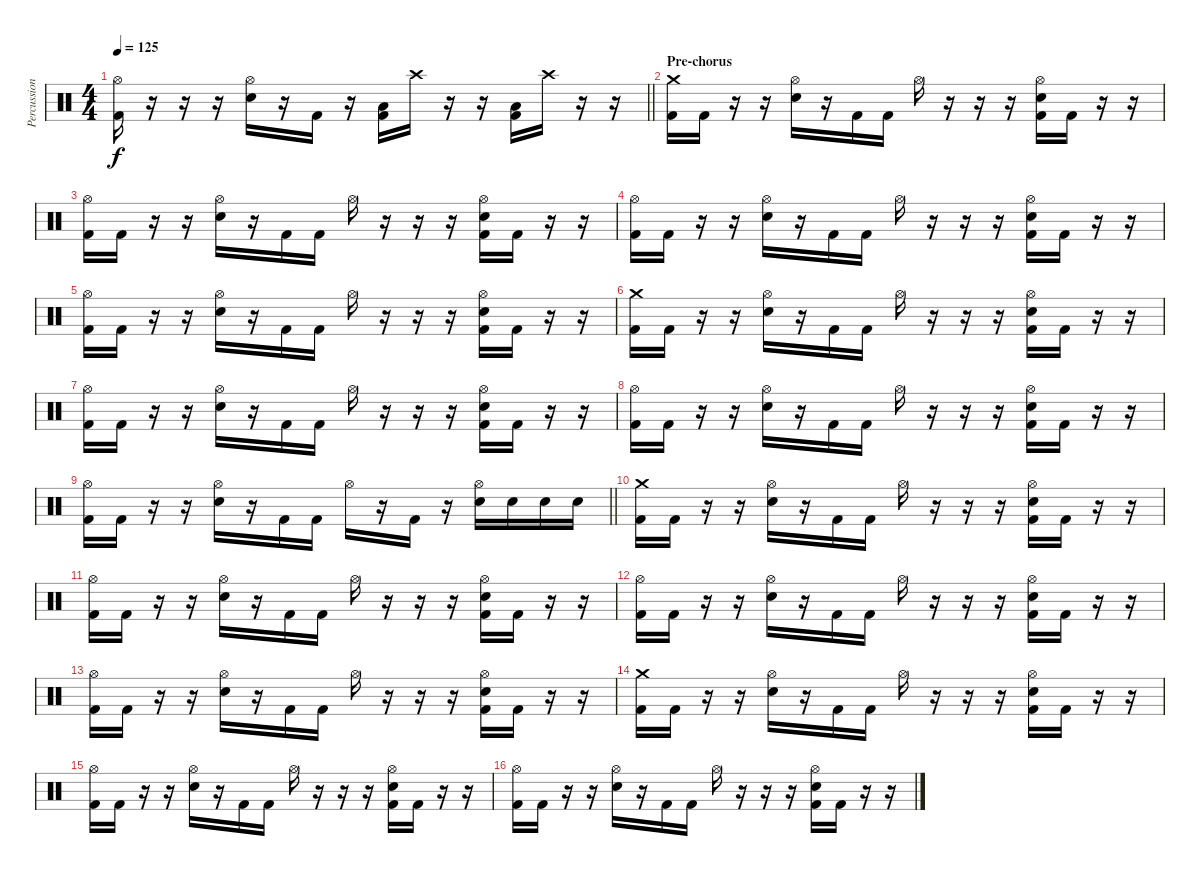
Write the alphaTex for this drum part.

\track ("Percussion" "Percussion") {instrument percussion}
\staff {score}
\articulation defaults
\ts (4 4)
\tempo 125
\clef neutral
\barLineRight lightlight
\ks c
("Hi-Hat (open)" "Kick (hit) 2").16{dy f} r.16 r.16 r.16 ("Hi-Hat (open)" "Electric Snare (hit)").16 r.16 "Kick (hit) 2".16 r.16 ("Low Floor Tom (hit)" "Kick (hit) 2").16 "Crash high (hit)".16 r.16 r.16 ("Low Floor Tom (hit)" "Kick (hit) 2").16 "Crash high (hit)".16 r.16 r.16 |
\section ("" "Pre-chorus")
("Crash medium (hit)" "Kick (hit) 2").16 "Kick (hit) 2".16 r.16 r.16 ("Hi-Hat (open)" "Electric Snare (hit)").16 r.16 "Kick (hit) 2".16 "Kick (hit) 2".16 "Hi-Hat (open)".16 r.16 r.16 r.16 ("Hi-Hat (open)" "Electric Snare (hit)" "Kick (hit) 2").16 "Kick (hit) 2".16 r.16 r.16 |
("Hi-Hat (open)" "Kick (hit) 2").16 "Kick (hit) 2".16 r.16 r.16 ("Hi-Hat (open)" "Electric Snare (hit)").16 r.16 "Kick (hit) 2".16 "Kick (hit) 2".16 "Hi-Hat (open)".16 r.16 r.16 r.16 ("Hi-Hat (open)" "Electric Snare (hit)" "Kick (hit) 2").16 "Kick (hit) 2".16 r.16 r.16 |
("Hi-Hat (open)" "Kick (hit) 2").16 "Kick (hit) 2".16 r.16 r.16 ("Hi-Hat (open)" "Electric Snare (hit)").16 r.16 "Kick (hit) 2".16 "Kick (hit) 2".16 "Hi-Hat (open)".16 r.16 r.16 r.16 ("Hi-Hat (open)" "Electric Snare (hit)" "Kick (hit) 2").16 "Kick (hit) 2".16 r.16 r.16 |
("Hi-Hat (open)" "Kick (hit) 2").16 "Kick (hit) 2".16 r.16 r.16 ("Hi-Hat (open)" "Electric Snare (hit)").16 r.16 "Kick (hit) 2".16 "Kick (hit) 2".16 "Hi-Hat (open)".16 r.16 r.16 r.16 ("Hi-Hat (open)" "Electric Snare (hit)" "Kick (hit) 2").16 "Kick (hit) 2".16 r.16 r.16 |
("Crash medium (hit)" "Kick (hit) 2").16 "Kick (hit) 2".16 r.16 r.16 ("Hi-Hat (open)" "Electric Snare (hit)").16 r.16 "Kick (hit) 2".16 "Kick (hit) 2".16 "Hi-Hat (open)".16 r.16 r.16 r.16 ("Hi-Hat (open)" "Electric Snare (hit)" "Kick (hit) 2").16 "Kick (hit) 2".16 r.16 r.16 |
("Hi-Hat (open)" "Kick (hit) 2").16 "Kick (hit) 2".16 r.16 r.16 ("Hi-Hat (open)" "Electric Snare (hit)").16 r.16 "Kick (hit) 2".16 "Kick (hit) 2".16 "Hi-Hat (open)".16 r.16 r.16 r.16 ("Hi-Hat (open)" "Electric Snare (hit)" "Kick (hit) 2").16 "Kick (hit) 2".16 r.16 r.16 |
("Hi-Hat (open)" "Kick (hit) 2").16 "Kick (hit) 2".16 r.16 r.16 ("Hi-Hat (open)" "Electric Snare (hit)").16 r.16 "Kick (hit) 2".16 "Kick (hit) 2".16 "Hi-Hat (open)".16 r.16 r.16 r.16 ("Hi-Hat (open)" "Electric Snare (hit)" "Kick (hit) 2").16 "Kick (hit) 2".16 r.16 r.16 |
\barLineRight lightlight
("Hi-Hat (open)" "Kick (hit) 2").16 "Kick (hit) 2".16 r.16 r.16 ("Hi-Hat (open)" "Electric Snare (hit)").16 r.16 "Kick (hit) 2".16 "Kick (hit) 2".16 "Hi-Hat (open)".16 r.16 "Kick (hit) 2".16 r.16 ("Hi-Hat (open)" "Electric Snare (hit)").16 "Electric Snare (hit)".16 "Electric Snare (hit)".16 "Electric Snare (hit)".16 |
("Crash medium (hit)" "Kick (hit) 2").16 "Kick (hit) 2".16 r.16 r.16 ("Hi-Hat (open)" "Electric Snare (hit)").16 r.16 "Kick (hit) 2".16 "Kick (hit) 2".16 "Hi-Hat (open)".16 r.16 r.16 r.16 ("Hi-Hat (open)" "Electric Snare (hit)" "Kick (hit) 2").16 "Kick (hit) 2".16 r.16 r.16 |
("Hi-Hat (open)" "Kick (hit) 2").16 "Kick (hit) 2".16 r.16 r.16 ("Hi-Hat (open)" "Electric Snare (hit)").16 r.16 "Kick (hit) 2".16 "Kick (hit) 2".16 "Hi-Hat (open)".16 r.16 r.16 r.16 ("Hi-Hat (open)" "Electric Snare (hit)" "Kick (hit) 2").16 "Kick (hit) 2".16 r.16 r.16 |
("Hi-Hat (open)" "Kick (hit) 2").16 "Kick (hit) 2".16 r.16 r.16 ("Hi-Hat (open)" "Electric Snare (hit)").16 r.16 "Kick (hit) 2".16 "Kick (hit) 2".16 "Hi-Hat (open)".16 r.16 r.16 r.16 ("Hi-Hat (open)" "Electric Snare (hit)" "Kick (hit) 2").16 "Kick (hit) 2".16 r.16 r.16 |
("Hi-Hat (open)" "Kick (hit) 2").16 "Kick (hit) 2".16 r.16 r.16 ("Hi-Hat (open)" "Electric Snare (hit)").16 r.16 "Kick (hit) 2".16 "Kick (hit) 2".16 "Hi-Hat (open)".16 r.16 r.16 r.16 ("Hi-Hat (open)" "Electric Snare (hit)" "Kick (hit) 2").16 "Kick (hit) 2".16 r.16 r.16 |
("Crash medium (hit)" "Kick (hit) 2").16 "Kick (hit) 2".16 r.16 r.16 ("Hi-Hat (open)" "Electric Snare (hit)").16 r.16 "Kick (hit) 2".16 "Kick (hit) 2".16 "Hi-Hat (open)".16 r.16 r.16 r.16 ("Hi-Hat (open)" "Electric Snare (hit)" "Kick (hit) 2").16 "Kick (hit) 2".16 r.16 r.16 |
("Hi-Hat (open)" "Kick (hit) 2").16 "Kick (hit) 2".16 r.16 r.16 ("Hi-Hat (open)" "Electric Snare (hit)").16 r.16 "Kick (hit) 2".16 "Kick (hit) 2".16 "Hi-Hat (open)".16 r.16 r.16 r.16 ("Hi-Hat (open)" "Electric Snare (hit)" "Kick (hit) 2").16 "Kick (hit) 2".16 r.16 r.16 |
("Hi-Hat (open)" "Kick (hit) 2").16 "Kick (hit) 2".16 r.16 r.16 ("Hi-Hat (open)" "Electric Snare (hit)").16 r.16 "Kick (hit) 2".16 "Kick (hit) 2".16 "Hi-Hat (open)".16 r.16 r.16 r.16 ("Hi-Hat (open)" "Electric Snare (hit)" "Kick (hit) 2").16 "Kick (hit) 2".16 r.16 r.16
